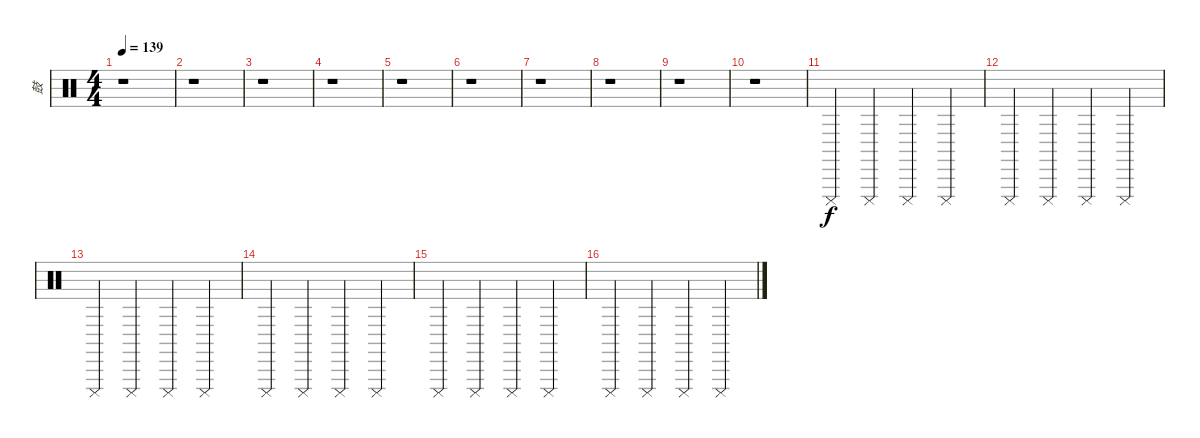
\track ("鼓" "鼓") {instrument percussion}
\staff {score}
\articulation defaults
\ts (4 4)
\tempo 139
\clef neutral
\ks c
r.1{dy f} |
r.1 |
r.1 |
r.1 |
r.1 |
r.1 |
r.1 |
r.1 |
r.1 |
r.1 |
"Cuica (mute)".4 "Cuica (mute)".4 "Cuica (mute)".4 "Cuica (mute)".4 |
"Cuica (mute)".4 "Cuica (mute)".4 "Cuica (mute)".4 "Cuica (mute)".4 |
"Cuica (mute)".4 "Cuica (mute)".4 "Cuica (mute)".4 "Cuica (mute)".4 |
"Cuica (mute)".4 "Cuica (mute)".4 "Cuica (mute)".4 "Cuica (mute)".4 |
"Cuica (mute)".4 "Cuica (mute)".4 "Cuica (mute)".4 "Cuica (mute)".4 |
"Cuica (mute)".4 "Cuica (mute)".4 "Cuica (mute)".4 "Cuica (mute)".4
